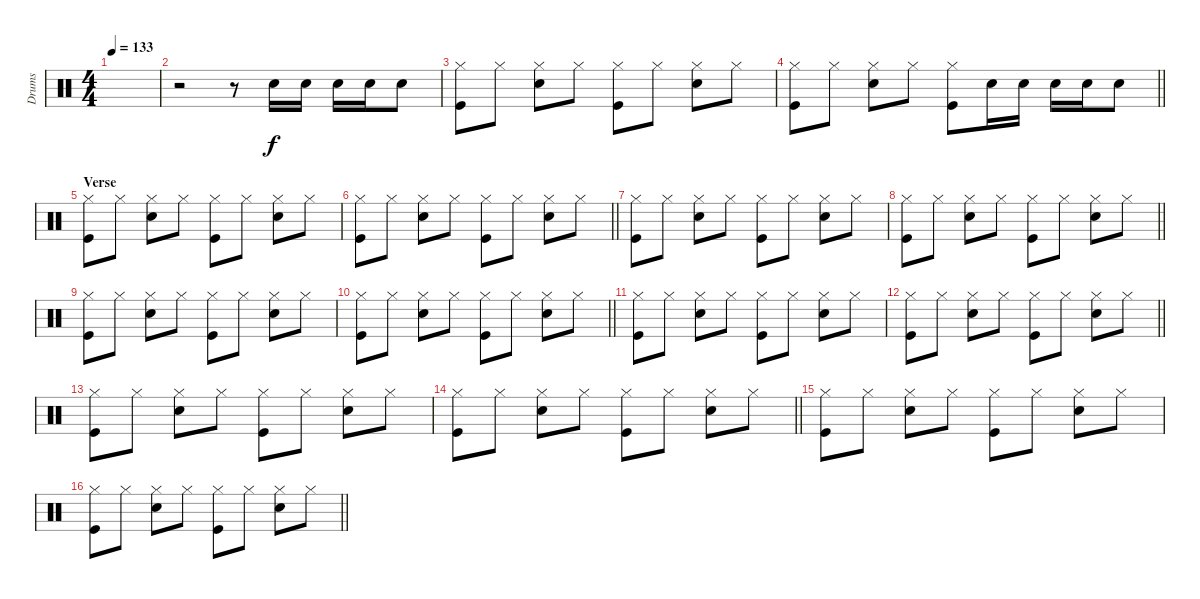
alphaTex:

\track ("Drums" "Drums") {instrument percussion}
\staff {score}
\articulation defaults
\ts (4 4)
\tempo 133
\clef neutral
\ks c
|
r.2 r.8 "Snare (hit) 2".16{dy f} "Snare (hit) 2".16 "Snare (hit) 2".16 "Snare (hit) 2".16 "Snare (hit) 2".8 |
("Hi-Hat (closed)" "Kick (hit)").8 "Hi-Hat (closed)".8 ("Hi-Hat (closed)" "Snare (hit) 2").8 "Hi-Hat (closed)".8 ("Hi-Hat (closed)" "Kick (hit)").8 "Hi-Hat (closed)".8 ("Hi-Hat (closed)" "Snare (hit) 2").8 "Hi-Hat (closed)".8 |
\barLineRight lightlight
("Hi-Hat (closed)" "Kick (hit)").8 "Hi-Hat (closed)".8 ("Hi-Hat (closed)" "Snare (hit) 2").8 "Hi-Hat (closed)".8 ("Hi-Hat (closed)" "Kick (hit)").8 "Snare (hit) 2".16 "Snare (hit) 2".16 "Snare (hit) 2".16 "Snare (hit) 2".16 "Snare (hit) 2".8 |
\section ("" "Verse")
("Hi-Hat (closed)" "Kick (hit)").8 "Hi-Hat (closed)".8 ("Hi-Hat (closed)" "Snare (hit) 2").8 "Hi-Hat (closed)".8 ("Hi-Hat (closed)" "Kick (hit)").8 "Hi-Hat (closed)".8 ("Hi-Hat (closed)" "Snare (hit) 2").8 "Hi-Hat (closed)".8 |
\barLineRight lightlight
("Hi-Hat (closed)" "Kick (hit)").8 "Hi-Hat (closed)".8 ("Hi-Hat (closed)" "Snare (hit) 2").8 "Hi-Hat (closed)".8 ("Hi-Hat (closed)" "Kick (hit)").8 "Hi-Hat (closed)".8 ("Hi-Hat (closed)" "Snare (hit) 2").8 "Hi-Hat (closed)".8 |
("Hi-Hat (closed)" "Kick (hit)").8 "Hi-Hat (closed)".8 ("Hi-Hat (closed)" "Snare (hit) 2").8 "Hi-Hat (closed)".8 ("Hi-Hat (closed)" "Kick (hit)").8 "Hi-Hat (closed)".8 ("Hi-Hat (closed)" "Snare (hit) 2").8 "Hi-Hat (closed)".8 |
\barLineRight lightlight
("Hi-Hat (closed)" "Kick (hit)").8 "Hi-Hat (closed)".8 ("Hi-Hat (closed)" "Snare (hit) 2").8 "Hi-Hat (closed)".8 ("Hi-Hat (closed)" "Kick (hit)").8 "Hi-Hat (closed)".8 ("Hi-Hat (closed)" "Snare (hit) 2").8 "Hi-Hat (closed)".8 |
("Hi-Hat (closed)" "Kick (hit)").8 "Hi-Hat (closed)".8 ("Hi-Hat (closed)" "Snare (hit) 2").8 "Hi-Hat (closed)".8 ("Hi-Hat (closed)" "Kick (hit)").8 "Hi-Hat (closed)".8 ("Hi-Hat (closed)" "Snare (hit) 2").8 "Hi-Hat (closed)".8 |
\barLineRight lightlight
("Hi-Hat (closed)" "Kick (hit)").8 "Hi-Hat (closed)".8 ("Hi-Hat (closed)" "Snare (hit) 2").8 "Hi-Hat (closed)".8 ("Hi-Hat (closed)" "Kick (hit)").8 "Hi-Hat (closed)".8 ("Hi-Hat (closed)" "Snare (hit) 2").8 "Hi-Hat (closed)".8 |
("Hi-Hat (closed)" "Kick (hit)").8 "Hi-Hat (closed)".8 ("Hi-Hat (closed)" "Snare (hit) 2").8 "Hi-Hat (closed)".8 ("Hi-Hat (closed)" "Kick (hit)").8 "Hi-Hat (closed)".8 ("Hi-Hat (closed)" "Snare (hit) 2").8 "Hi-Hat (closed)".8 |
\barLineRight lightlight
("Hi-Hat (closed)" "Kick (hit)").8 "Hi-Hat (closed)".8 ("Hi-Hat (closed)" "Snare (hit) 2").8 "Hi-Hat (closed)".8 ("Hi-Hat (closed)" "Kick (hit)").8 "Hi-Hat (closed)".8 ("Hi-Hat (closed)" "Snare (hit) 2").8 "Hi-Hat (closed)".8 |
("Hi-Hat (closed)" "Kick (hit)").8 "Hi-Hat (closed)".8 ("Hi-Hat (closed)" "Snare (hit) 2").8 "Hi-Hat (closed)".8 ("Hi-Hat (closed)" "Kick (hit)").8 "Hi-Hat (closed)".8 ("Hi-Hat (closed)" "Snare (hit) 2").8 "Hi-Hat (closed)".8 |
\barLineRight lightlight
("Hi-Hat (closed)" "Kick (hit)").8 "Hi-Hat (closed)".8 ("Hi-Hat (closed)" "Snare (hit) 2").8 "Hi-Hat (closed)".8 ("Hi-Hat (closed)" "Kick (hit)").8 "Hi-Hat (closed)".8 ("Hi-Hat (closed)" "Snare (hit) 2").8 "Hi-Hat (closed)".8 |
("Hi-Hat (closed)" "Kick (hit)").8 "Hi-Hat (closed)".8 ("Hi-Hat (closed)" "Snare (hit) 2").8 "Hi-Hat (closed)".8 ("Hi-Hat (closed)" "Kick (hit)").8 "Hi-Hat (closed)".8 ("Hi-Hat (closed)" "Snare (hit) 2").8 "Hi-Hat (closed)".8 |
\barLineRight lightlight
("Hi-Hat (closed)" "Kick (hit)").8 "Hi-Hat (closed)".8 ("Hi-Hat (closed)" "Snare (hit) 2").8 "Hi-Hat (closed)".8 ("Hi-Hat (closed)" "Kick (hit)").8 "Hi-Hat (closed)".8 ("Hi-Hat (closed)" "Snare (hit) 2").8 "Hi-Hat (closed)".8
